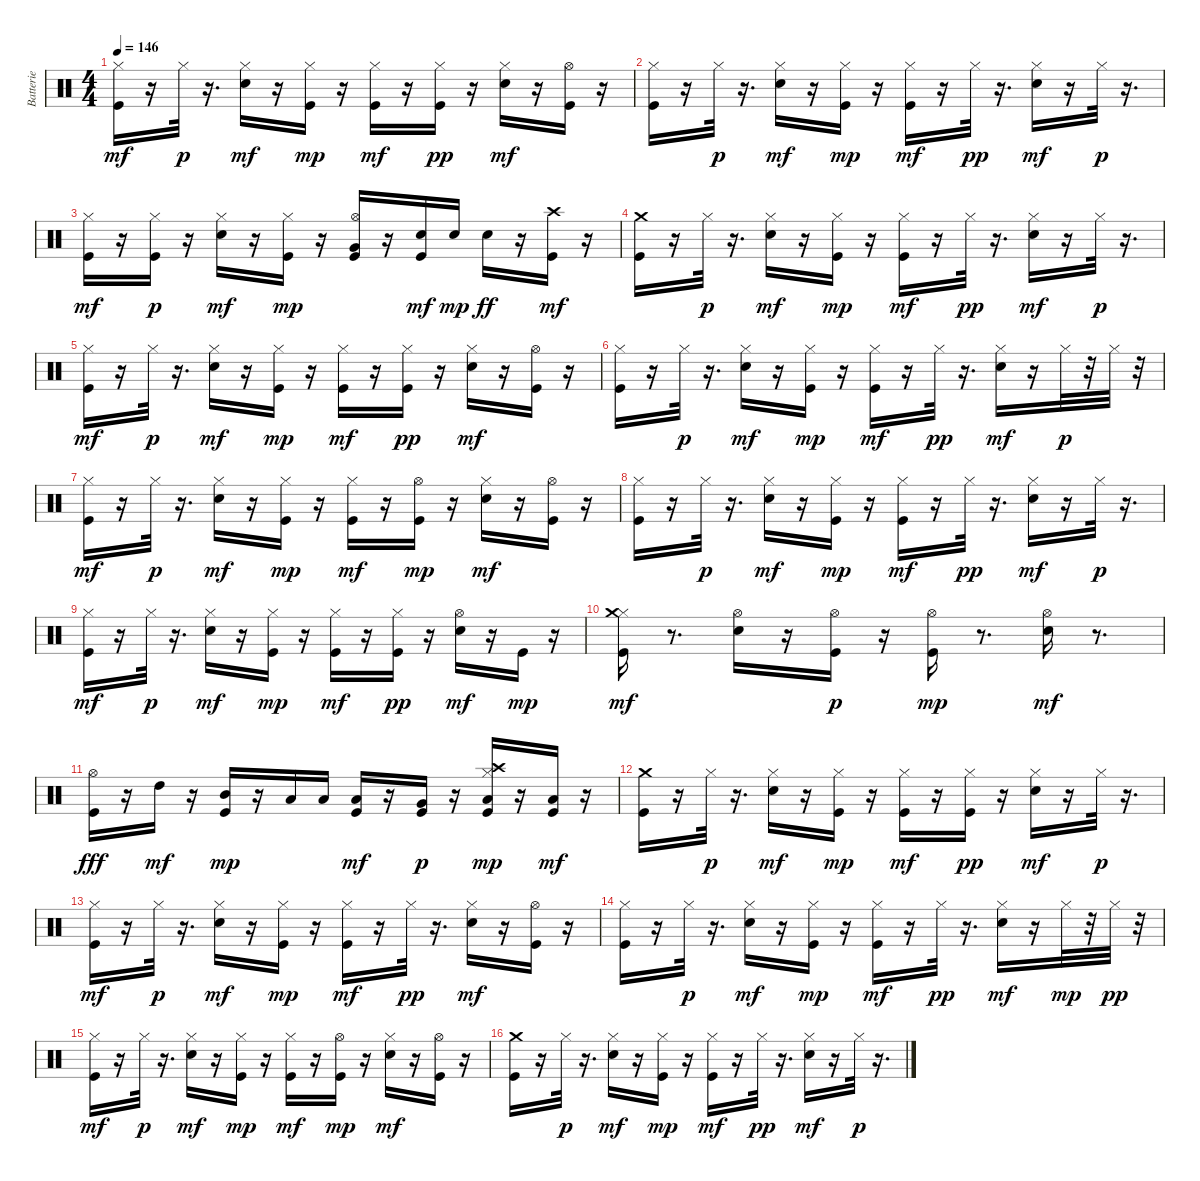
\track ("Batterie" "Batterie") {instrument percussion}
\staff {score}
\articulation defaults
\ts (4 4)
\tempo 146
\clef neutral
\ks c
("Kick (hit)" "Hi-Hat (closed)").16{dy mf} r.16 "Hi-Hat (closed)".32{dy p} r.16{d} ("Electric Snare (hit)" "Hi-Hat (closed)").16{dy mf} r.16 ("Kick (hit)" "Hi-Hat (closed)").16{dy mp} r.16 ("Kick (hit)" "Hi-Hat (closed)").16{dy mf} r.16 ("Kick (hit)" "Hi-Hat (closed)").16{dy pp} r.16 ("Electric Snare (hit)" "Hi-Hat (closed)").16{dy mf} r.16 ("Kick (hit)" "Hi-Hat (open)").16 r.16 |
("Kick (hit)" "Hi-Hat (closed)").16 r.16 "Hi-Hat (closed)".32{dy p} r.16{d} ("Electric Snare (hit)" "Hi-Hat (closed)").16{dy mf} r.16 ("Kick (hit)" "Hi-Hat (closed)").16{dy mp} r.16 ("Kick (hit)" "Hi-Hat (closed)").16{dy mf} r.16 "Hi-Hat (closed)".32{dy pp} r.16{d} ("Electric Snare (hit)" "Hi-Hat (closed)").16{dy mf} r.16 "Hi-Hat (closed)".32{dy p} r.16{d} |
("Kick (hit)" "Hi-Hat (closed)").16{dy mf} r.16 ("Kick (hit)" "Hi-Hat (closed)").16{dy p} r.16 ("Electric Snare (hit)" "Hi-Hat (closed)").16{dy mf} r.16 ("Kick (hit)" "Hi-Hat (closed)").16{dy mp} r.16 ("Kick (hit)" "Hi-Hat (open)" "Very Low Tom (hit)").16 r.16 ("Kick (hit)" "Electric Snare (hit)").16{dy mf} "Electric Snare (hit)".16{dy mp} "Electric Snare (hit)".16{dy ff} r.16 ("Crash high (hit)" "Kick (hit)").16{dy mf} r.16 |
("Kick (hit)" "Crash medium (hit)").16 r.16 "Hi-Hat (closed)".32{dy p} r.16{d} ("Electric Snare (hit)" "Hi-Hat (closed)").16{dy mf} r.16 ("Kick (hit)" "Hi-Hat (closed)").16{dy mp} r.16 ("Kick (hit)" "Hi-Hat (closed)").16{dy mf} r.16 "Hi-Hat (closed)".32{dy pp} r.16{d} ("Electric Snare (hit)" "Hi-Hat (closed)").16{dy mf} r.16 "Hi-Hat (closed)".32{dy p} r.16{d} |
("Kick (hit)" "Hi-Hat (closed)").16{dy mf} r.16 "Hi-Hat (closed)".32{dy p} r.16{d} ("Electric Snare (hit)" "Hi-Hat (closed)").16{dy mf} r.16 ("Kick (hit)" "Hi-Hat (closed)").16{dy mp} r.16 ("Kick (hit)" "Hi-Hat (closed)").16{dy mf} r.16 ("Kick (hit)" "Hi-Hat (closed)").16{dy pp} r.16 ("Electric Snare (hit)" "Hi-Hat (closed)").16{dy mf} r.16 ("Kick (hit)" "Hi-Hat (open)").16 r.16 |
("Kick (hit)" "Hi-Hat (closed)").16 r.16 "Hi-Hat (closed)".32{dy p} r.16{d} ("Electric Snare (hit)" "Hi-Hat (closed)").16{dy mf} r.16 ("Kick (hit)" "Hi-Hat (closed)").16{dy mp} r.16 ("Kick (hit)" "Hi-Hat (closed)").16{dy mf} r.16 "Hi-Hat (closed)".32{dy pp} r.16{d} ("Electric Snare (hit)" "Hi-Hat (closed)").16{dy mf} r.16 "Hi-Hat (closed)".32{dy p} r.32 "Hi-Hat (closed)".32 r.32 |
("Kick (hit)" "Hi-Hat (closed)").16{dy mf} r.16 "Hi-Hat (closed)".32{dy p} r.16{d} ("Electric Snare (hit)" "Hi-Hat (closed)").16{dy mf} r.16 ("Kick (hit)" "Hi-Hat (closed)").16{dy mp} r.16 ("Kick (hit)" "Hi-Hat (closed)").16{dy mf} r.16 ("Kick (hit)" "Hi-Hat (open)").16{dy mp} r.16 ("Electric Snare (hit)" "Hi-Hat (closed)").16{dy mf} r.16 ("Kick (hit)" "Hi-Hat (open)").16 r.16 |
("Kick (hit)" "Hi-Hat (closed)").16 r.16 "Hi-Hat (closed)".32{dy p} r.16{d} ("Electric Snare (hit)" "Hi-Hat (closed)").16{dy mf} r.16 ("Kick (hit)" "Hi-Hat (closed)").16{dy mp} r.16 ("Kick (hit)" "Hi-Hat (closed)").16{dy mf} r.16 "Hi-Hat (closed)".32{dy pp} r.16{d} ("Electric Snare (hit)" "Hi-Hat (closed)").16{dy mf} r.16 "Hi-Hat (closed)".32{dy p} r.16{d} |
("Kick (hit)" "Hi-Hat (closed)").16{dy mf} r.16 "Hi-Hat (closed)".32{dy p} r.16{d} ("Electric Snare (hit)" "Hi-Hat (closed)").16{dy mf} r.16 ("Kick (hit)" "Hi-Hat (closed)").16{dy mp} r.16 ("Kick (hit)" "Hi-Hat (closed)").16{dy mf} r.16 ("Kick (hit)" "Hi-Hat (closed)").16{dy pp} r.16 ("Electric Snare (hit)" "Hi-Hat (open)").16{dy mf} r.16 "Kick (hit)".16{dy mp} r.16 |
("Kick (hit)" "Hi-Hat (closed)" "Crash medium (hit)").16{dy mf} r.8{d} ("Electric Snare (hit)" "Hi-Hat (open)").16 r.16 ("Kick (hit)" "Hi-Hat (open)").16{dy p} r.16 ("Kick (hit)" "Hi-Hat (open)").16{dy mp} r.8{d} ("Electric Snare (hit)" "Hi-Hat (open)").16{dy mf} r.8{d} |
("Kick (hit)" "Hi-Hat (open)").16{dy fff} r.16 "High Tom (hit)".16{dy mf} r.16 ("Kick (hit)" "Mid Tom (hit)").16{dy mp} r.16 "Low Tom (hit)".16 "Low Tom (hit)".16 ("Kick (hit)" "Low Tom (hit)").16{dy mf} r.16 ("Kick (hit)" "Very Low Tom (hit)").16{dy p} r.16 ("Kick (hit)" "Hi-Hat (closed)" "Crash high (hit)" "Low Tom (hit)").16{dy mp} r.16 ("Kick (hit)" "Low Floor Tom (hit)").16{dy mf} r.16 |
("Kick (hit)" "Crash medium (hit)").16 r.16 "Hi-Hat (closed)".32{dy p} r.16{d} ("Electric Snare (hit)" "Hi-Hat (closed)").16{dy mf} r.16 ("Kick (hit)" "Hi-Hat (closed)").16{dy mp} r.16 ("Kick (hit)" "Hi-Hat (closed)").16{dy mf} r.16 ("Kick (hit)" "Hi-Hat (closed)").16{dy pp} r.16 ("Electric Snare (hit)" "Hi-Hat (closed)").16{dy mf} r.16 "Hi-Hat (closed)".32{dy p} r.16{d} |
("Kick (hit)" "Hi-Hat (closed)").16{dy mf} r.16 "Hi-Hat (closed)".32{dy p} r.16{d} ("Electric Snare (hit)" "Hi-Hat (closed)").16{dy mf} r.16 ("Kick (hit)" "Hi-Hat (closed)").16{dy mp} r.16 ("Kick (hit)" "Hi-Hat (closed)").16{dy mf} r.16 "Hi-Hat (closed)".32{dy pp} r.16{d} ("Electric Snare (hit)" "Hi-Hat (closed)").16{dy mf} r.16 ("Kick (hit)" "Hi-Hat (open)").16 r.16 |
("Kick (hit)" "Hi-Hat (closed)").16 r.16 "Hi-Hat (closed)".32{dy p} r.16{d} ("Electric Snare (hit)" "Hi-Hat (closed)").16{dy mf} r.16 ("Kick (hit)" "Hi-Hat (closed)").16{dy mp} r.16 ("Kick (hit)" "Hi-Hat (closed)").16{dy mf} r.16 "Hi-Hat (closed)".32{dy pp} r.16{d} ("Electric Snare (hit)" "Hi-Hat (closed)").16{dy mf} r.16 "Hi-Hat (closed)".32{dy mp} r.32 "Hi-Hat (closed)".32{dy pp} r.32 |
("Kick (hit)" "Hi-Hat (closed)").16{dy mf} r.16 "Hi-Hat (closed)".32{dy p} r.16{d} ("Electric Snare (hit)" "Hi-Hat (closed)").16{dy mf} r.16 ("Kick (hit)" "Hi-Hat (closed)").16{dy mp} r.16 ("Kick (hit)" "Hi-Hat (closed)").16{dy mf} r.16 ("Kick (hit)" "Hi-Hat (open)").16{dy mp} r.16 ("Electric Snare (hit)" "Hi-Hat (closed)").16{dy mf} r.16 ("Kick (hit)" "Hi-Hat (open)").16 r.16 |
("Kick (hit)" "Crash medium (hit)").16 r.16 "Hi-Hat (closed)".32{dy p} r.16{d} ("Electric Snare (hit)" "Hi-Hat (closed)").16{dy mf} r.16 ("Kick (hit)" "Hi-Hat (closed)").16{dy mp} r.16 ("Kick (hit)" "Hi-Hat (closed)").16{dy mf} r.16 "Hi-Hat (closed)".32{dy pp} r.16{d} ("Electric Snare (hit)" "Hi-Hat (closed)").16{dy mf} r.16 "Hi-Hat (closed)".32{dy p} r.16{d}
